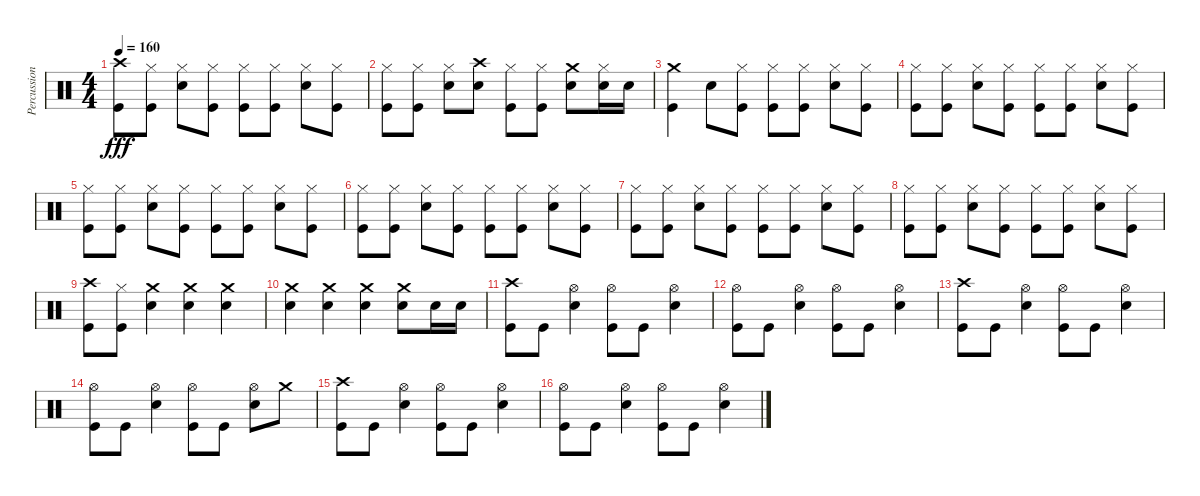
\track ("Percussions" "Percussion") {instrument percussion}
\staff {score}
\articulation defaults
\ts (4 4)
\tempo 160
\clef neutral
\ks c
("Crash high (hit)" "Kick (hit)").8{dy fff} ("Hi-Hat (closed)" "Kick (hit)").8 ("Hi-Hat (closed)" "Electric Snare (hit)").8 ("Hi-Hat (closed)" "Kick (hit)").8 ("Hi-Hat (closed)" "Kick (hit)").8 ("Hi-Hat (closed)" "Kick (hit)").8 ("Hi-Hat (closed)" "Electric Snare (hit)").8 ("Hi-Hat (closed)" "Kick (hit)").8 |
("Hi-Hat (closed)" "Kick (hit)").8 ("Hi-Hat (closed)" "Kick (hit)").8 ("Hi-Hat (closed)" "Electric Snare (hit)").8 ("Crash high (hit)" "Electric Snare (hit)").8 ("Hi-Hat (closed)" "Kick (hit)").8 ("Hi-Hat (closed)" "Kick (hit)").8 ("Crash medium (hit)" "Electric Snare (hit)").8 ("Hi-Hat (closed)" "Electric Snare (hit)").16 "Electric Snare (hit)".16 |
("Crash medium (hit)" "Kick (hit)").4 "Electric Snare (hit)".8 ("Hi-Hat (closed)" "Kick (hit)").8 ("Hi-Hat (closed)" "Kick (hit)").8 ("Hi-Hat (closed)" "Kick (hit)").8 ("Hi-Hat (closed)" "Electric Snare (hit)").8 ("Hi-Hat (closed)" "Kick (hit)").8 |
("Hi-Hat (closed)" "Kick (hit)").8 ("Hi-Hat (closed)" "Kick (hit)").8 ("Hi-Hat (closed)" "Electric Snare (hit)").8 ("Hi-Hat (closed)" "Kick (hit)").8 ("Hi-Hat (closed)" "Kick (hit)").8 ("Hi-Hat (closed)" "Kick (hit)").8 ("Hi-Hat (closed)" "Electric Snare (hit)").8 ("Hi-Hat (closed)" "Kick (hit)").8 |
("Hi-Hat (closed)" "Kick (hit)").8 ("Hi-Hat (closed)" "Kick (hit)").8 ("Hi-Hat (closed)" "Electric Snare (hit)").8 ("Hi-Hat (closed)" "Kick (hit)").8 ("Hi-Hat (closed)" "Kick (hit)").8 ("Hi-Hat (closed)" "Kick (hit)").8 ("Hi-Hat (closed)" "Electric Snare (hit)").8 ("Hi-Hat (closed)" "Kick (hit)").8 |
("Hi-Hat (closed)" "Kick (hit)").8 ("Hi-Hat (closed)" "Kick (hit)").8 ("Hi-Hat (closed)" "Electric Snare (hit)").8 ("Hi-Hat (closed)" "Kick (hit)").8 ("Hi-Hat (closed)" "Kick (hit)").8 ("Hi-Hat (closed)" "Kick (hit)").8 ("Hi-Hat (closed)" "Electric Snare (hit)").8 ("Hi-Hat (closed)" "Kick (hit)").8 |
("Hi-Hat (closed)" "Kick (hit)").8 ("Hi-Hat (closed)" "Kick (hit)").8 ("Hi-Hat (closed)" "Electric Snare (hit)").8 ("Hi-Hat (closed)" "Kick (hit)").8 ("Hi-Hat (closed)" "Kick (hit)").8 ("Hi-Hat (closed)" "Kick (hit)").8 ("Hi-Hat (closed)" "Electric Snare (hit)").8 ("Hi-Hat (closed)" "Kick (hit)").8 |
("Hi-Hat (closed)" "Kick (hit)").8 ("Hi-Hat (closed)" "Kick (hit)").8 ("Hi-Hat (closed)" "Electric Snare (hit)").8 ("Hi-Hat (closed)" "Kick (hit)").8 ("Hi-Hat (closed)" "Kick (hit)").8 ("Hi-Hat (closed)" "Kick (hit)").8 ("Hi-Hat (closed)" "Electric Snare (hit)").8 ("Hi-Hat (closed)" "Kick (hit)").8 |
("Crash high (hit)" "Kick (hit)").8 ("Hi-Hat (closed)" "Kick (hit)").8 ("Crash medium (hit)" "Electric Snare (hit)").4 ("Crash medium (hit)" "Electric Snare (hit)").4 ("Crash medium (hit)" "Electric Snare (hit)").4 |
("Crash medium (hit)" "Electric Snare (hit)").4 ("Crash medium (hit)" "Electric Snare (hit)").4 ("Crash medium (hit)" "Electric Snare (hit)").4 ("Crash medium (hit)" "Electric Snare (hit)").8 "Electric Snare (hit)".16 "Electric Snare (hit)".16 |
("Crash high (hit)" "Kick (hit)").8 "Kick (hit)".8 ("Hi-Hat (open)" "Electric Snare (hit)").4 ("Hi-Hat (open)" "Kick (hit)").8 "Kick (hit)".8 ("Hi-Hat (open)" "Electric Snare (hit)").4 |
("Hi-Hat (open)" "Kick (hit)").8 "Kick (hit)".8 ("Hi-Hat (open)" "Electric Snare (hit)").4 ("Hi-Hat (open)" "Kick (hit)").8 "Kick (hit)".8 ("Hi-Hat (open)" "Electric Snare (hit)").4 |
("Crash high (hit)" "Kick (hit)").8 "Kick (hit)".8 ("Hi-Hat (open)" "Electric Snare (hit)").4 ("Hi-Hat (open)" "Kick (hit)").8 "Kick (hit)".8 ("Hi-Hat (open)" "Electric Snare (hit)").4 |
("Hi-Hat (open)" "Kick (hit)").8 "Kick (hit)".8 ("Hi-Hat (open)" "Electric Snare (hit)").4 ("Hi-Hat (open)" "Kick (hit)").8 "Kick (hit)".8 ("Hi-Hat (open)" "Electric Snare (hit)").8 "Crash medium (hit)".8 |
("Crash high (hit)" "Kick (hit)").8 "Kick (hit)".8 ("Hi-Hat (open)" "Electric Snare (hit)").4 ("Hi-Hat (open)" "Kick (hit)").8 "Kick (hit)".8 ("Hi-Hat (open)" "Electric Snare (hit)").4 |
("Hi-Hat (open)" "Kick (hit)").8 "Kick (hit)".8 ("Hi-Hat (open)" "Electric Snare (hit)").4 ("Hi-Hat (open)" "Kick (hit)").8 "Kick (hit)".8 ("Hi-Hat (open)" "Electric Snare (hit)").4
